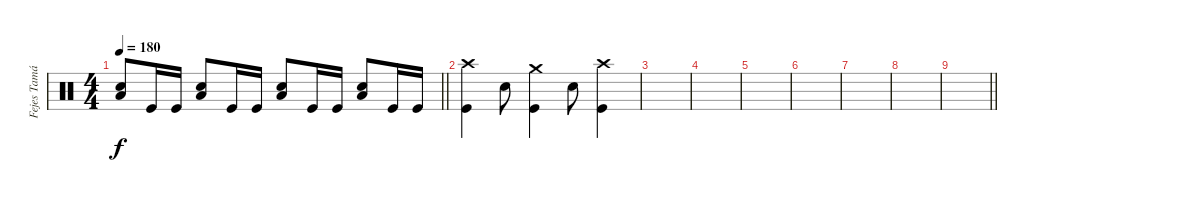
\track ("Fejes Tamás - Dob" "Fejes Tamá") {instrument percussion}
\staff {score}
\articulation defaults
\ts (4 4)
\tempo 180
\clef neutral
\barLineRight lightlight
\ks c
("Electric Snare (hit)" "Low Tom (hit)").8{dy f} "Kick (hit)".16 "Kick (hit)".16 ("Electric Snare (hit)" "Low Tom (hit)").8 "Kick (hit)".16 "Kick (hit)".16 ("Electric Snare (hit)" "Low Tom (hit)").8 "Kick (hit)".16 "Kick (hit)".16 ("Electric Snare (hit)" "Low Tom (hit)").8 "Kick (hit)".16 "Kick (hit)".16 |
("Crash high (hit)" "Kick (hit)").4 "Electric Snare (hit)".8 ("Crash medium (hit)" "Kick (hit)").4 "Electric Snare (hit)".8 ("Crash high (hit)" "Kick (hit)").4 |
|
|
|
|
|
|
\barLineRight lightlight
